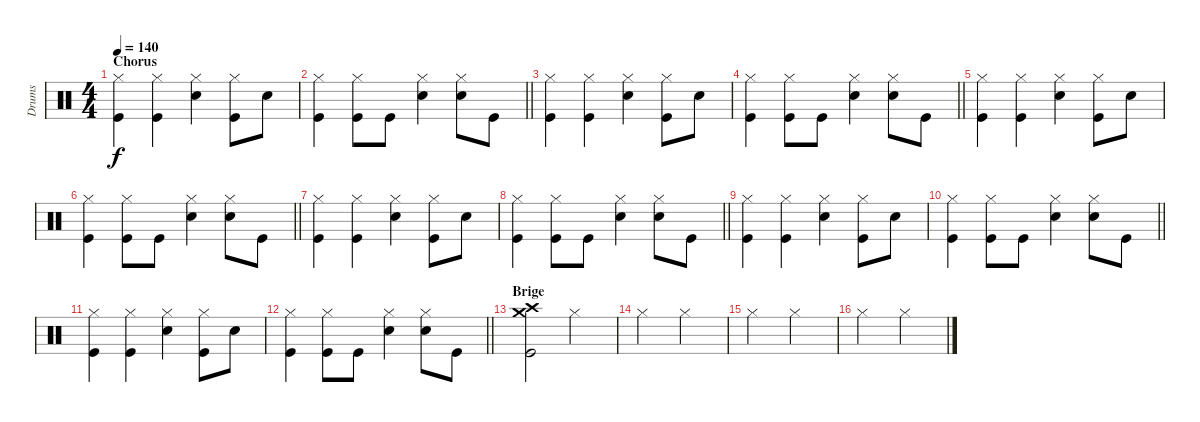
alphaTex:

\track ("Drums" "Drums") {instrument percussion}
\staff {score}
\articulation defaults
\ts (4 4)
\section ("" "Chorus")
\tempo 140
\clef neutral
\ks c
("Hi-Hat (closed)" "Kick (hit)").4{dy f} ("Hi-Hat (closed)" "Kick (hit)").4 ("Hi-Hat (closed)" "Snare (hit) 2").4 ("Hi-Hat (closed)" "Kick (hit)").8 "Snare (hit) 2".8 |
\barLineRight lightlight
("Hi-Hat (closed)" "Kick (hit)").4 ("Hi-Hat (closed)" "Kick (hit)").8 "Kick (hit)".8 ("Hi-Hat (closed)" "Snare (hit) 2").4 ("Hi-Hat (closed)" "Snare (hit) 2").8 "Kick (hit)".8 |
("Hi-Hat (closed)" "Kick (hit)").4 ("Hi-Hat (closed)" "Kick (hit)").4 ("Hi-Hat (closed)" "Snare (hit) 2").4 ("Hi-Hat (closed)" "Kick (hit)").8 "Snare (hit) 2".8 |
\barLineRight lightlight
("Hi-Hat (closed)" "Kick (hit)").4 ("Hi-Hat (closed)" "Kick (hit)").8 "Kick (hit)".8 ("Hi-Hat (closed)" "Snare (hit) 2").4 ("Hi-Hat (closed)" "Snare (hit) 2").8 "Kick (hit)".8 |
("Hi-Hat (closed)" "Kick (hit)").4 ("Hi-Hat (closed)" "Kick (hit)").4 ("Hi-Hat (closed)" "Snare (hit) 2").4 ("Hi-Hat (closed)" "Kick (hit)").8 "Snare (hit) 2".8 |
\barLineRight lightlight
("Hi-Hat (closed)" "Kick (hit)").4 ("Hi-Hat (closed)" "Kick (hit)").8 "Kick (hit)".8 ("Hi-Hat (closed)" "Snare (hit) 2").4 ("Hi-Hat (closed)" "Snare (hit) 2").8 "Kick (hit)".8 |
("Hi-Hat (closed)" "Kick (hit)").4 ("Hi-Hat (closed)" "Kick (hit)").4 ("Hi-Hat (closed)" "Snare (hit) 2").4 ("Hi-Hat (closed)" "Kick (hit)").8 "Snare (hit) 2".8 |
\barLineRight lightlight
("Hi-Hat (closed)" "Kick (hit)").4 ("Hi-Hat (closed)" "Kick (hit)").8 "Kick (hit)".8 ("Hi-Hat (closed)" "Snare (hit) 2").4 ("Hi-Hat (closed)" "Snare (hit) 2").8 "Kick (hit)".8 |
("Hi-Hat (closed)" "Kick (hit)").4 ("Hi-Hat (closed)" "Kick (hit)").4 ("Hi-Hat (closed)" "Snare (hit) 2").4 ("Hi-Hat (closed)" "Kick (hit)").8 "Snare (hit) 2".8 |
\barLineRight lightlight
("Hi-Hat (closed)" "Kick (hit)").4 ("Hi-Hat (closed)" "Kick (hit)").8 "Kick (hit)".8 ("Hi-Hat (closed)" "Snare (hit) 2").4 ("Hi-Hat (closed)" "Snare (hit) 2").8 "Kick (hit)".8 |
("Hi-Hat (closed)" "Kick (hit)").4 ("Hi-Hat (closed)" "Kick (hit)").4 ("Hi-Hat (closed)" "Snare (hit) 2").4 ("Hi-Hat (closed)" "Kick (hit)").8 "Snare (hit) 2".8 |
\barLineRight lightlight
("Hi-Hat (closed)" "Kick (hit)").4 ("Hi-Hat (closed)" "Kick (hit)").8 "Kick (hit)".8 ("Hi-Hat (closed)" "Snare (hit) 2").4 ("Hi-Hat (closed)" "Snare (hit) 2").8 "Kick (hit)".8 |
\section ("" "Brige")
("Crash medium (hit)" "Kick (hit)" "Crash high (hit)").2 "Hi-Hat (closed)".2 |
"Hi-Hat (closed)".2 "Hi-Hat (closed)".2 |
"Hi-Hat (closed)".2 "Hi-Hat (closed)".2 |
"Hi-Hat (closed)".2 "Hi-Hat (closed)".2
